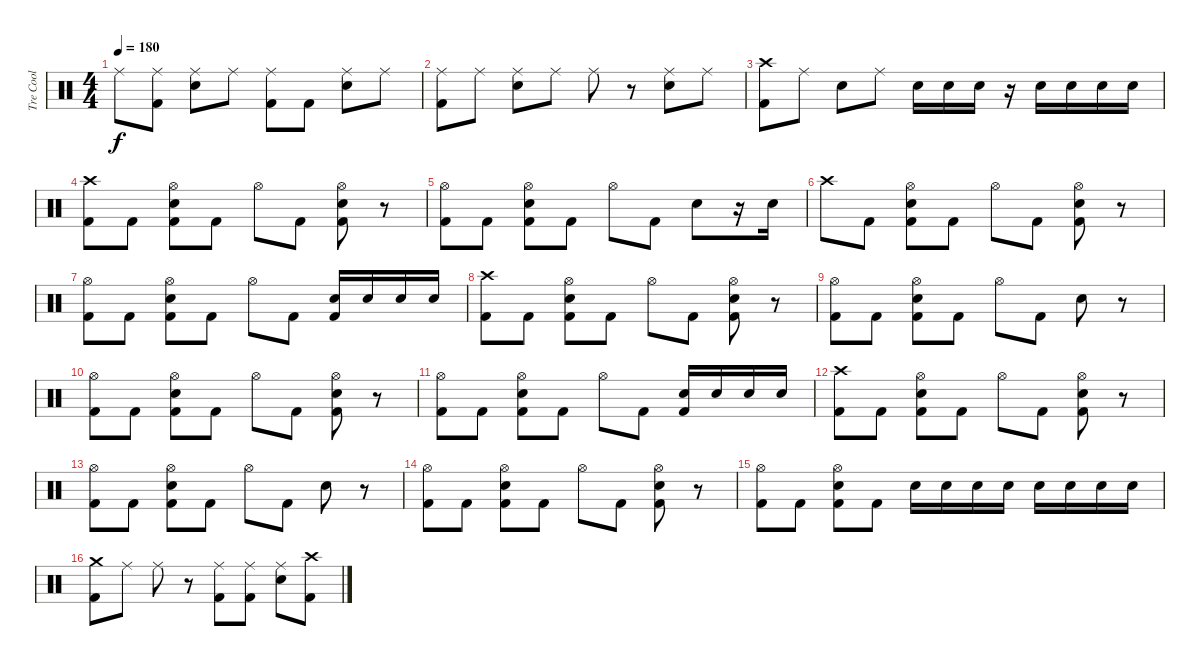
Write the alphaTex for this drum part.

\track ("Tre Cool" "Tre Cool") {instrument percussion}
\staff {score}
\articulation defaults
\ts (4 4)
\tempo 180
\clef neutral
\ks c "Ride (middle)".8{dy f}
("Kick (hit) 2" "Ride (middle)").8 ("Snare (hit) 2" "Ride (middle)").8 "Ride (middle)".8 ("Kick (hit) 2" "Ride (middle)").8 "Kick (hit) 2".8 ("Snare (hit) 2" "Ride (middle)").8 "Ride (middle)".8 |
("Ride (middle)" "Kick (hit) 2").8 "Ride (middle)".8 ("Ride (middle)" "Snare (hit) 2").8 "Ride (middle)".8 "Ride (middle)".8 r.8 ("Ride (middle)" "Snare (hit) 2").8 "Ride (middle)".8 |
("Crash high (hit)" "Kick (hit) 2").8 "Ride (middle)".8 "Snare (hit) 2".8 "Ride (middle)".8 "Snare (hit) 2".16 "Snare (hit) 2".16 "Snare (hit) 2".16 r.16 "Snare (hit) 2".16 "Snare (hit) 2".16 "Snare (hit) 2".16 "Snare (hit) 2".16 |
("Kick (hit) 2" "Crash high (hit)").8 "Kick (hit) 2".8 ("Snare (hit) 2" "Hi-Hat (open)" "Kick (hit) 2").8 "Kick (hit) 2".8 "Hi-Hat (open)".8 "Kick (hit) 2".8 ("Snare (hit) 2" "Hi-Hat (open)" "Kick (hit) 2").8 r.8 |
("Kick (hit) 2" "Hi-Hat (open)").8 "Kick (hit) 2".8 ("Snare (hit) 2" "Hi-Hat (open)" "Kick (hit) 2").8 "Kick (hit) 2".8 "Hi-Hat (open)".8 "Kick (hit) 2".8 "Snare (hit) 2".8 r.16 "Snare (hit) 2".16 |
"Crash high (hit)".8 "Kick (hit) 2".8 ("Snare (hit) 2" "Hi-Hat (open)" "Kick (hit) 2").8 "Kick (hit) 2".8 "Hi-Hat (open)".8 "Kick (hit) 2".8 ("Snare (hit) 2" "Hi-Hat (open)" "Kick (hit) 2").8 r.8 |
("Kick (hit) 2" "Hi-Hat (open)").8 "Kick (hit) 2".8 ("Snare (hit) 2" "Hi-Hat (open)" "Kick (hit) 2").8 "Kick (hit) 2".8 "Hi-Hat (open)".8 "Kick (hit) 2".8 ("Snare (hit) 2" "Kick (hit) 2").16 "Snare (hit) 2".16 "Snare (hit) 2".16 "Snare (hit) 2".16 |
("Crash high (hit)" "Kick (hit) 2").8 "Kick (hit) 2".8 ("Kick (hit) 2" "Hi-Hat (open)" "Snare (hit) 2").8 "Kick (hit) 2".8 "Hi-Hat (open)".8 "Kick (hit) 2".8 ("Kick (hit) 2" "Hi-Hat (open)" "Snare (hit) 2").8 r.8 |
("Hi-Hat (open)" "Kick (hit) 2").8 "Kick (hit) 2".8 ("Kick (hit) 2" "Hi-Hat (open)" "Snare (hit) 2").8 "Kick (hit) 2".8 "Hi-Hat (open)".8 "Kick (hit) 2".8 "Snare (hit) 2".8 r.8 |
("Hi-Hat (open)" "Kick (hit) 2").8 "Kick (hit) 2".8 ("Kick (hit) 2" "Hi-Hat (open)" "Snare (hit) 2").8 "Kick (hit) 2".8 "Hi-Hat (open)".8 "Kick (hit) 2".8 ("Kick (hit) 2" "Hi-Hat (open)" "Snare (hit) 2").8 r.8 |
("Hi-Hat (open)" "Kick (hit) 2").8 "Kick (hit) 2".8 ("Kick (hit) 2" "Hi-Hat (open)" "Snare (hit) 2").8 "Kick (hit) 2".8 "Hi-Hat (open)".8 "Kick (hit) 2".8 ("Kick (hit) 2" "Snare (hit) 2").16 "Snare (hit) 2".16 "Snare (hit) 2".16 "Snare (hit) 2".16 |
("Kick (hit) 2" "Crash high (hit)").8 "Kick (hit) 2".8 ("Snare (hit) 2" "Hi-Hat (open)" "Kick (hit) 2").8 "Kick (hit) 2".8 "Hi-Hat (open)".8 "Kick (hit) 2".8 ("Snare (hit) 2" "Hi-Hat (open)" "Kick (hit) 2").8 r.8 |
("Kick (hit) 2" "Hi-Hat (open)").8 "Kick (hit) 2".8 ("Snare (hit) 2" "Hi-Hat (open)" "Kick (hit) 2").8 "Kick (hit) 2".8 "Hi-Hat (open)".8 "Kick (hit) 2".8 "Snare (hit) 2".8 r.8 |
("Kick (hit) 2" "Hi-Hat (open)").8 "Kick (hit) 2".8 ("Snare (hit) 2" "Hi-Hat (open)" "Kick (hit) 2").8 "Kick (hit) 2".8 "Hi-Hat (open)".8 "Kick (hit) 2".8 ("Snare (hit) 2" "Hi-Hat (open)" "Kick (hit) 2").8 r.8 |
("Kick (hit) 2" "Hi-Hat (open)").8 "Kick (hit) 2".8 ("Snare (hit) 2" "Hi-Hat (open)" "Kick (hit) 2").8 "Kick (hit) 2".8 "Snare (hit) 2".16 "Snare (hit) 2".16 "Snare (hit) 2".16 "Snare (hit) 2".16 "Snare (hit) 2".16 "Snare (hit) 2".16 "Snare (hit) 2".16 "Snare (hit) 2".16 |
("Kick (hit) 2" "Crash medium (hit)").8 "Ride (middle)".8 "Ride (middle)".8 r.8 ("Kick (hit) 2" "Ride (middle)").8 ("Kick (hit) 2" "Ride (middle)").8 ("Snare (hit) 2" "Ride (middle)").8 ("Kick (hit) 2" "Crash high (hit)").8
